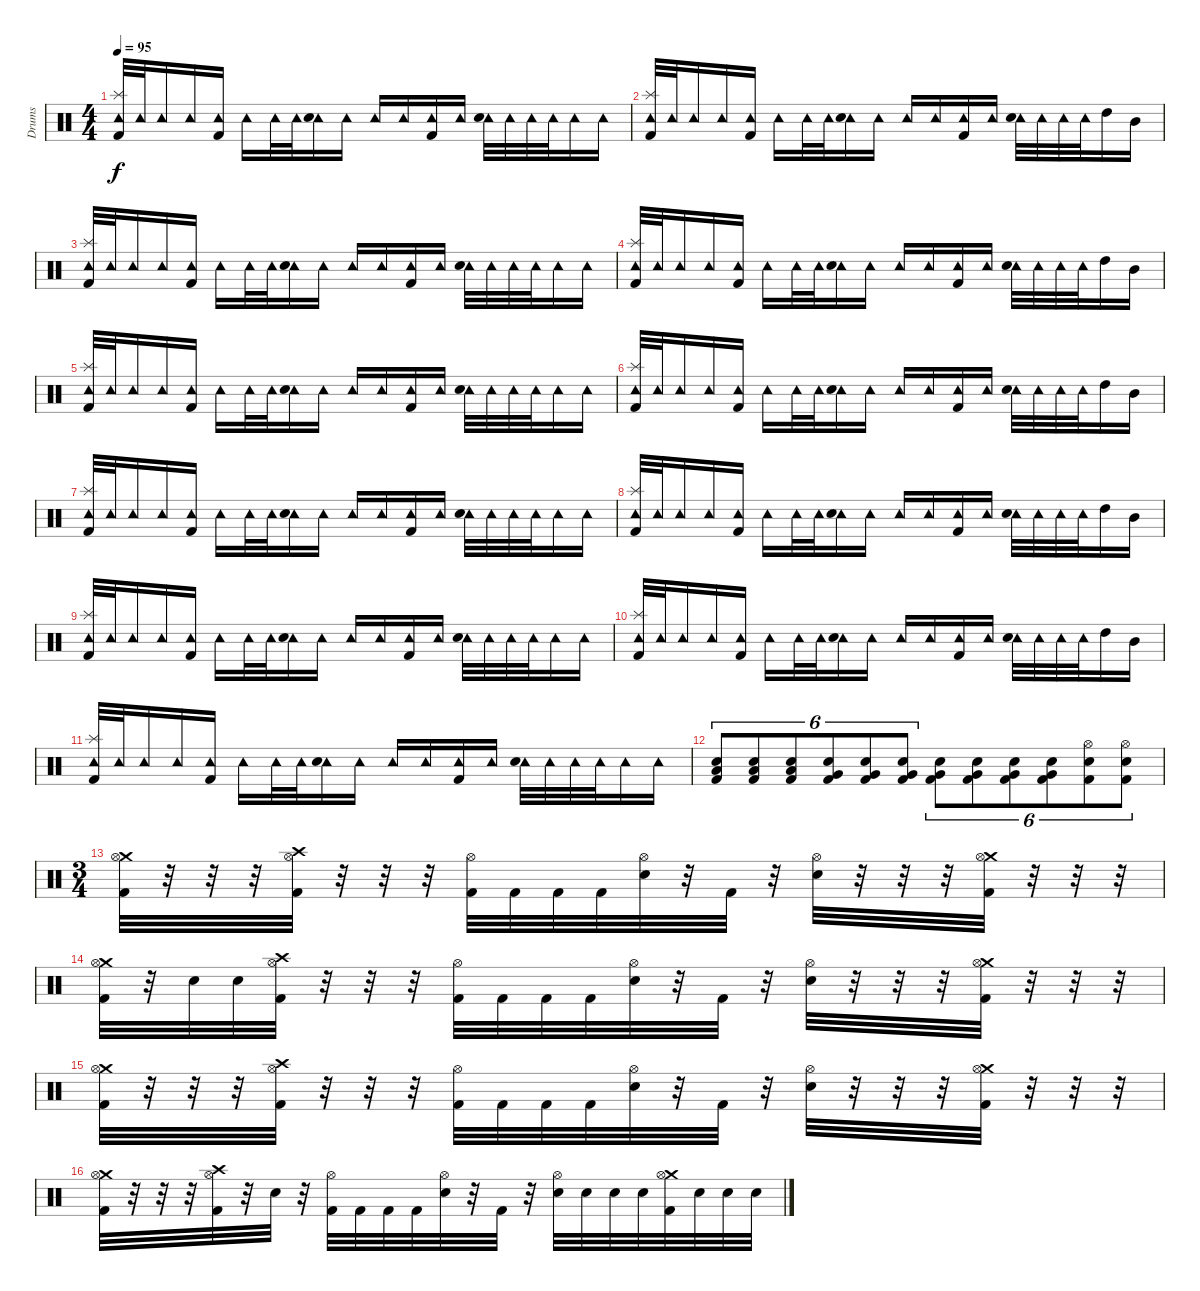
\track ("Drums" "Drums") {instrument percussion}
\staff {score}
\articulation defaults
\ts (4 4)
\tempo 95
\clef neutral
\ks c
("Tambourine (hit)" "Splash (hit)" "Kick (hit) 2").32{dy f} "Tambourine (hit)".32 "Tambourine (hit)".16 "Tambourine (hit)".16 ("Tambourine (hit)" "Kick (hit) 2").16 "Tambourine (hit)".16 "Tambourine (hit)".32 "Tambourine (hit)".32 ("Tambourine (hit)" "Electric Snare (hit)").16 "Tambourine (hit)".16 "Tambourine (hit)".16 "Tambourine (hit)".16 ("Tambourine (hit)" "Kick (hit) 2").16 "Tambourine (hit)".16 ("Tambourine (hit)" "Electric Snare (hit)").32 "Tambourine (hit)".32 "Tambourine (hit)".32 "Tambourine (hit)".32 "Tambourine (hit)".16 "Tambourine (hit)".16 |
("Tambourine (hit)" "Splash (hit)" "Kick (hit) 2").32 "Tambourine (hit)".32 "Tambourine (hit)".16 "Tambourine (hit)".16 ("Tambourine (hit)" "Kick (hit) 2").16 "Tambourine (hit)".16 "Tambourine (hit)".32 "Tambourine (hit)".32 ("Tambourine (hit)" "Electric Snare (hit)").16 "Tambourine (hit)".16 "Tambourine (hit)".16 "Tambourine (hit)".16 ("Tambourine (hit)" "Kick (hit) 2").16 "Tambourine (hit)".16 ("Tambourine (hit)" "Electric Snare (hit)").32 "Tambourine (hit)".32 "Tambourine (hit)".32 "Tambourine (hit)".32 "High Tom (hit)".16 "Mid Tom (hit)".16 |
("Tambourine (hit)" "Splash (hit)" "Kick (hit) 2").32 "Tambourine (hit)".32 "Tambourine (hit)".16 "Tambourine (hit)".16 ("Tambourine (hit)" "Kick (hit) 2").16 "Tambourine (hit)".16 "Tambourine (hit)".32 "Tambourine (hit)".32 ("Tambourine (hit)" "Electric Snare (hit)").16 "Tambourine (hit)".16 "Tambourine (hit)".16 "Tambourine (hit)".16 ("Tambourine (hit)" "Kick (hit) 2").16 "Tambourine (hit)".16 ("Tambourine (hit)" "Electric Snare (hit)").32 "Tambourine (hit)".32 "Tambourine (hit)".32 "Tambourine (hit)".32 "Tambourine (hit)".16 "Tambourine (hit)".16 |
("Tambourine (hit)" "Splash (hit)" "Kick (hit) 2").32 "Tambourine (hit)".32 "Tambourine (hit)".16 "Tambourine (hit)".16 ("Tambourine (hit)" "Kick (hit) 2").16 "Tambourine (hit)".16 "Tambourine (hit)".32 "Tambourine (hit)".32 ("Tambourine (hit)" "Electric Snare (hit)").16 "Tambourine (hit)".16 "Tambourine (hit)".16 "Tambourine (hit)".16 ("Tambourine (hit)" "Kick (hit) 2").16 "Tambourine (hit)".16 ("Tambourine (hit)" "Electric Snare (hit)").32 "Tambourine (hit)".32 "Tambourine (hit)".32 "Tambourine (hit)".32 "High Tom (hit)".16 "Mid Tom (hit)".16 |
("Tambourine (hit)" "Splash (hit)" "Kick (hit) 2").32 "Tambourine (hit)".32 "Tambourine (hit)".16 "Tambourine (hit)".16 ("Tambourine (hit)" "Kick (hit) 2").16 "Tambourine (hit)".16 "Tambourine (hit)".32 "Tambourine (hit)".32 ("Tambourine (hit)" "Electric Snare (hit)").16 "Tambourine (hit)".16 "Tambourine (hit)".16 "Tambourine (hit)".16 ("Tambourine (hit)" "Kick (hit) 2").16 "Tambourine (hit)".16 ("Tambourine (hit)" "Electric Snare (hit)").32 "Tambourine (hit)".32 "Tambourine (hit)".32 "Tambourine (hit)".32 "Tambourine (hit)".16 "Tambourine (hit)".16 |
("Tambourine (hit)" "Splash (hit)" "Kick (hit) 2").32 "Tambourine (hit)".32 "Tambourine (hit)".16 "Tambourine (hit)".16 ("Tambourine (hit)" "Kick (hit) 2").16 "Tambourine (hit)".16 "Tambourine (hit)".32 "Tambourine (hit)".32 ("Tambourine (hit)" "Electric Snare (hit)").16 "Tambourine (hit)".16 "Tambourine (hit)".16 "Tambourine (hit)".16 ("Tambourine (hit)" "Kick (hit) 2").16 "Tambourine (hit)".16 ("Tambourine (hit)" "Electric Snare (hit)").32 "Tambourine (hit)".32 "Tambourine (hit)".32 "Tambourine (hit)".32 "High Tom (hit)".16 "Mid Tom (hit)".16 |
("Tambourine (hit)" "Splash (hit)" "Kick (hit) 2").32 "Tambourine (hit)".32 "Tambourine (hit)".16 "Tambourine (hit)".16 ("Tambourine (hit)" "Kick (hit) 2").16 "Tambourine (hit)".16 "Tambourine (hit)".32 "Tambourine (hit)".32 ("Tambourine (hit)" "Electric Snare (hit)").16 "Tambourine (hit)".16 "Tambourine (hit)".16 "Tambourine (hit)".16 ("Tambourine (hit)" "Kick (hit) 2").16 "Tambourine (hit)".16 ("Tambourine (hit)" "Electric Snare (hit)").32 "Tambourine (hit)".32 "Tambourine (hit)".32 "Tambourine (hit)".32 "Tambourine (hit)".16 "Tambourine (hit)".16 |
("Tambourine (hit)" "Splash (hit)" "Kick (hit) 2").32 "Tambourine (hit)".32 "Tambourine (hit)".16 "Tambourine (hit)".16 ("Tambourine (hit)" "Kick (hit) 2").16 "Tambourine (hit)".16 "Tambourine (hit)".32 "Tambourine (hit)".32 ("Tambourine (hit)" "Electric Snare (hit)").16 "Tambourine (hit)".16 "Tambourine (hit)".16 "Tambourine (hit)".16 ("Tambourine (hit)" "Kick (hit) 2").16 "Tambourine (hit)".16 ("Tambourine (hit)" "Electric Snare (hit)").32 "Tambourine (hit)".32 "Tambourine (hit)".32 "Tambourine (hit)".32 "High Tom (hit)".16 "Mid Tom (hit)".16 |
("Tambourine (hit)" "Splash (hit)" "Kick (hit) 2").32 "Tambourine (hit)".32 "Tambourine (hit)".16 "Tambourine (hit)".16 ("Tambourine (hit)" "Kick (hit) 2").16 "Tambourine (hit)".16 "Tambourine (hit)".32 "Tambourine (hit)".32 ("Tambourine (hit)" "Electric Snare (hit)").16 "Tambourine (hit)".16 "Tambourine (hit)".16 "Tambourine (hit)".16 ("Tambourine (hit)" "Kick (hit) 2").16 "Tambourine (hit)".16 ("Tambourine (hit)" "Electric Snare (hit)").32 "Tambourine (hit)".32 "Tambourine (hit)".32 "Tambourine (hit)".32 "Tambourine (hit)".16 "Tambourine (hit)".16 |
("Tambourine (hit)" "Splash (hit)" "Kick (hit) 2").32 "Tambourine (hit)".32 "Tambourine (hit)".16 "Tambourine (hit)".16 ("Tambourine (hit)" "Kick (hit) 2").16 "Tambourine (hit)".16 "Tambourine (hit)".32 "Tambourine (hit)".32 ("Tambourine (hit)" "Electric Snare (hit)").16 "Tambourine (hit)".16 "Tambourine (hit)".16 "Tambourine (hit)".16 ("Tambourine (hit)" "Kick (hit) 2").16 "Tambourine (hit)".16 ("Tambourine (hit)" "Electric Snare (hit)").32 "Tambourine (hit)".32 "Tambourine (hit)".32 "Tambourine (hit)".32 "High Tom (hit)".16 "Mid Tom (hit)".16 |
("Tambourine (hit)" "Splash (hit)" "Kick (hit) 2").32 "Tambourine (hit)".32 "Tambourine (hit)".16 "Tambourine (hit)".16 ("Tambourine (hit)" "Kick (hit) 2").16 "Tambourine (hit)".16 "Tambourine (hit)".32 "Tambourine (hit)".32 ("Tambourine (hit)" "Electric Snare (hit)").16 "Tambourine (hit)".16 "Tambourine (hit)".16 "Tambourine (hit)".16 ("Tambourine (hit)" "Kick (hit) 2").16 "Tambourine (hit)".16 ("Tambourine (hit)" "Electric Snare (hit)").32 "Tambourine (hit)".32 "Tambourine (hit)".32 "Tambourine (hit)".32 "Tambourine (hit)".16 "Tambourine (hit)".16 |
("Low Tom (hit)" "Electric Snare (hit)" "Kick (hit) 2").8{tu (6 4)} ("Low Tom (hit)" "Electric Snare (hit)" "Kick (hit) 2").8{tu (6 4)} ("Low Tom (hit)" "Electric Snare (hit)" "Kick (hit) 2").8{tu (6 4)} ("Very Low Tom (hit)" "Electric Snare (hit)" "Kick (hit) 2").8{tu (6 4)} ("Very Low Tom (hit)" "Electric Snare (hit)" "Kick (hit) 2").8{tu (6 4)} ("Very Low Tom (hit)" "Electric Snare (hit)" "Kick (hit) 2").8{tu (6 4)} ("Very Low Tom (hit)" "Electric Snare (hit)" "Kick (hit) 2").8{tu (6 4)} ("Very Low Tom (hit)" "Electric Snare (hit)" "Kick (hit) 2").8{tu (6 4)} ("Very Low Tom (hit)" "Electric Snare (hit)" "Kick (hit) 2").8{tu (6 4)} ("Very Low Tom (hit)" "Electric Snare (hit)" "Kick (hit) 2").8{tu (6 4)} ("Hi-Hat (open)" "Electric Snare (hit)" "Kick (hit) 2").8{tu (6 4)} ("Hi-Hat (open)" "Electric Snare (hit)" "Kick (hit) 2").8{tu (6 4)} |
\ts (3 4)
("Crash medium (hit)" "Hi-Hat (open)" "Kick (hit) 2").32 r.32 r.32 r.32 ("Crash high (hit)" "Hi-Hat (open)" "Kick (hit) 2").32 r.32 r.32 r.32 ("Hi-Hat (open)" "Kick (hit) 2").32 "Kick (hit) 2".32 "Kick (hit) 2".32 "Kick (hit) 2".32 ("Hi-Hat (open)" "Electric Snare (hit)").32 r.32 "Kick (hit) 2".32 r.32 ("Hi-Hat (open)" "Electric Snare (hit)").32 r.32 r.32 r.32 ("Crash medium (hit)" "Hi-Hat (open)" "Kick (hit) 2").32 r.32 r.32 r.32 |
("Crash medium (hit)" "Hi-Hat (open)" "Kick (hit) 2").32 r.32 "Electric Snare (hit)".32 "Electric Snare (hit)".32 ("Crash high (hit)" "Hi-Hat (open)" "Kick (hit) 2").32 r.32 r.32 r.32 ("Hi-Hat (open)" "Kick (hit) 2").32 "Kick (hit) 2".32 "Kick (hit) 2".32 "Kick (hit) 2".32 ("Hi-Hat (open)" "Electric Snare (hit)").32 r.32 "Kick (hit) 2".32 r.32 ("Hi-Hat (open)" "Electric Snare (hit)").32 r.32 r.32 r.32 ("Crash medium (hit)" "Hi-Hat (open)" "Kick (hit) 2").32 r.32 r.32 r.32 |
("Crash medium (hit)" "Hi-Hat (open)" "Kick (hit) 2").32 r.32 r.32 r.32 ("Crash high (hit)" "Hi-Hat (open)" "Kick (hit) 2").32 r.32 r.32 r.32 ("Hi-Hat (open)" "Kick (hit) 2").32 "Kick (hit) 2".32 "Kick (hit) 2".32 "Kick (hit) 2".32 ("Hi-Hat (open)" "Electric Snare (hit)").32 r.32 "Kick (hit) 2".32 r.32 ("Hi-Hat (open)" "Electric Snare (hit)").32 r.32 r.32 r.32 ("Crash medium (hit)" "Hi-Hat (open)" "Kick (hit) 2").32 r.32 r.32 r.32 |
("Crash medium (hit)" "Hi-Hat (open)" "Kick (hit) 2").32 r.32 r.32 r.32 ("Crash high (hit)" "Hi-Hat (open)" "Kick (hit) 2").32 r.32 "Electric Snare (hit)".32 r.32 ("Hi-Hat (open)" "Kick (hit) 2").32 "Kick (hit) 2".32 "Kick (hit) 2".32 "Kick (hit) 2".32 ("Hi-Hat (open)" "Electric Snare (hit)").32 r.32 "Kick (hit) 2".32 r.32 ("Hi-Hat (open)" "Electric Snare (hit)").32 "Electric Snare (hit)".32 "Electric Snare (hit)".32 "Electric Snare (hit)".32 ("Crash medium (hit)" "Hi-Hat (open)" "Kick (hit) 2").32 "Electric Snare (hit)".32 "Electric Snare (hit)".32 "Electric Snare (hit)".32
